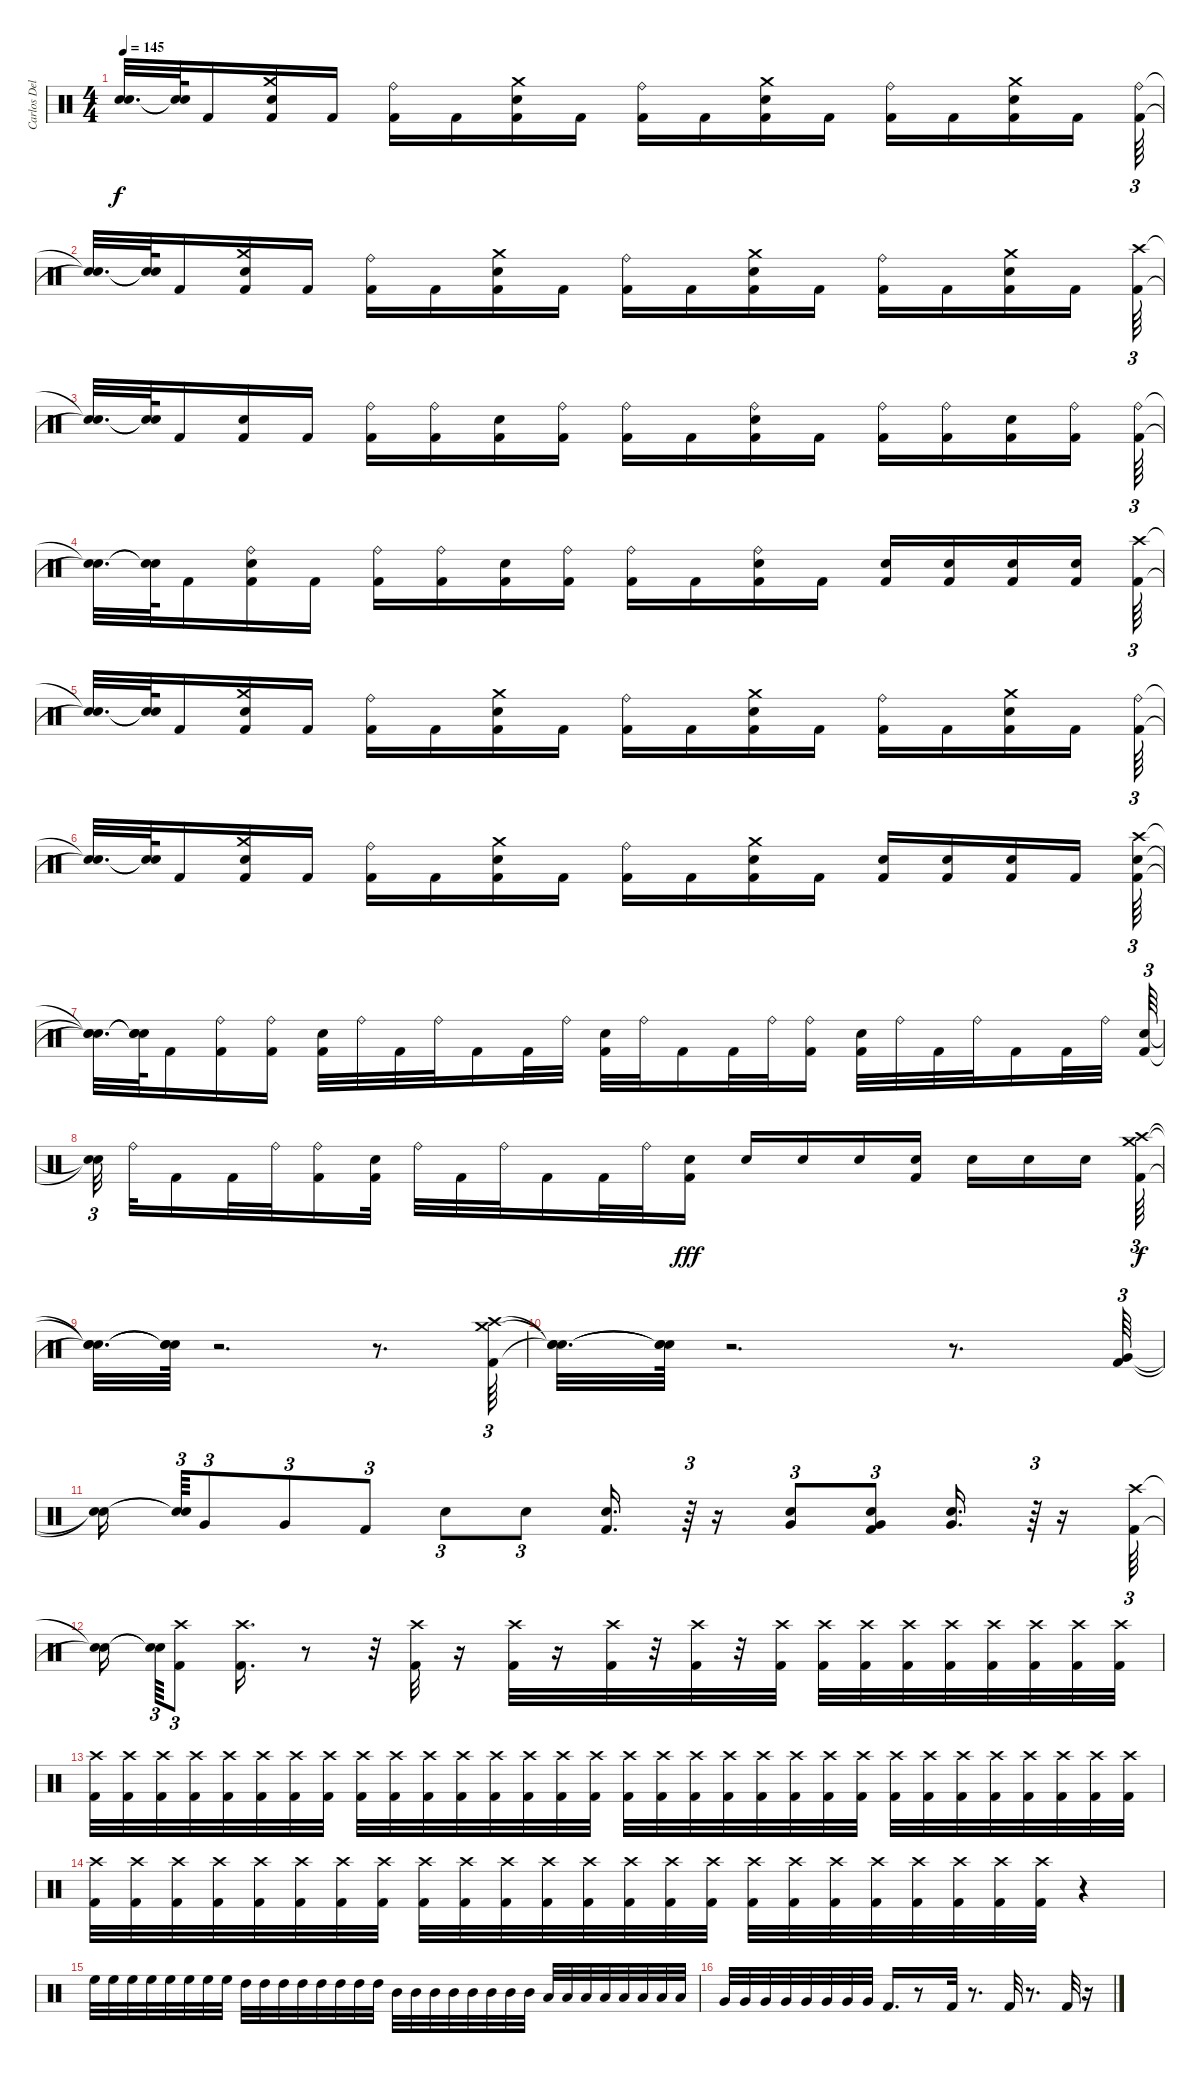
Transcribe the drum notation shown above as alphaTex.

\track ("Carlos Delgado" "Carlos Del") {instrument percussion}
\staff {score}
\articulation defaults
\ts (4 4)
\tempo 145
\clef neutral
\ks c
("Snare (hit)"{t} "Snare (hit)"{t}).32{d dy f} ("Snare (hit)"{t} "Snare (hit)"{t}).64 "Kick (hit) 2".16 ("Kick (hit) 2" "Crash medium (hit)" "Electric Snare (hit)").16 "Kick (hit) 2".16 ("Kick (hit) 2" "Ride (bell)").16 "Kick (hit) 2".16 ("Kick (hit) 2" "Crash medium (hit)" "Electric Snare (hit)").16 "Kick (hit) 2".16 ("Ride (bell)" "Kick (hit) 2").16 "Kick (hit) 2".16 ("Kick (hit) 2" "Crash medium (hit)" "Electric Snare (hit)").16 "Kick (hit) 2".16 ("Kick (hit) 2" "Ride (bell)").16 "Kick (hit) 2".16 ("Kick (hit) 2" "Crash medium (hit)" "Electric Snare (hit)").16 "Kick (hit) 2".16 ("Kick (hit) 2" "Ride (bell)").64{tu (3 2)} |
("Snare (hit)"{t} "Snare (hit)"{t}).32{d} ("Snare (hit)"{t} "Snare (hit)"{t}).64 "Kick (hit) 2".16 ("Kick (hit) 2" "Electric Snare (hit)" "Crash medium (hit)").16 "Kick (hit) 2".16 ("Kick (hit) 2" "Ride (bell)").16 "Kick (hit) 2".16 ("Kick (hit) 2" "Electric Snare (hit)" "Crash medium (hit)").16 "Kick (hit) 2".16 ("Kick (hit) 2" "Ride (bell)").16 "Kick (hit) 2".16 ("Kick (hit) 2" "Crash medium (hit)" "Electric Snare (hit)").16 "Kick (hit) 2".16 ("Ride (bell)" "Kick (hit) 2").16 "Kick (hit) 2".16 ("Kick (hit) 2" "Crash medium (hit)" "Electric Snare (hit)").16 "Kick (hit) 2".16 ("Kick (hit) 2" "Crash high (hit)").64{tu (3 2)} |
("Snare (hit)"{t} "Snare (hit)"{t}).32{d} ("Snare (hit)"{t} "Snare (hit)"{t}).64 "Kick (hit) 2".16 ("Kick (hit) 2" "Electric Snare (hit)").16 "Kick (hit) 2".16 ("Kick (hit) 2" "Ride (bell)").16 ("Ride (bell)" "Kick (hit) 2").16 ("Kick (hit) 2" "Electric Snare (hit)").16 ("Kick (hit) 2" "Ride (bell)").16 ("Ride (bell)" "Kick (hit) 2").16 "Kick (hit) 2".16 ("Ride (bell)" "Kick (hit) 2" "Electric Snare (hit)").16 "Kick (hit) 2".16 ("Kick (hit) 2" "Ride (bell)").16 ("Ride (bell)" "Kick (hit) 2").16 ("Kick (hit) 2" "Electric Snare (hit)").16 ("Ride (bell)" "Kick (hit) 2").16 ("Ride (bell)" "Kick (hit) 2").64{tu (3 2)} |
("Snare (hit)"{t} "Snare (hit)"{t}).32{d} ("Snare (hit)"{t} "Snare (hit)"{t}).64 "Kick (hit) 2".16 ("Kick (hit) 2" "Ride (bell)" "Electric Snare (hit)").16 "Kick (hit) 2".16 ("Kick (hit) 2" "Ride (bell)").16 ("Ride (bell)" "Kick (hit) 2").16 ("Kick (hit) 2" "Electric Snare (hit)").16 ("Kick (hit) 2" "Ride (bell)").16 ("Ride (bell)" "Kick (hit) 2").16 "Kick (hit) 2".16 ("Ride (bell)" "Kick (hit) 2" "Electric Snare (hit)").16 "Kick (hit) 2".16 ("Electric Snare (hit)" "Kick (hit) 2").16 ("Electric Snare (hit)" "Kick (hit) 2").16 ("Kick (hit) 2" "Electric Snare (hit)").16 ("Electric Snare (hit)" "Kick (hit) 2").16 ("Kick (hit) 2" "Crash high (hit)").64{tu (3 2)} |
("Snare (hit)"{t} "Snare (hit)"{t}).32{d} ("Snare (hit)"{t} "Snare (hit)"{t}).64 "Kick (hit) 2".16 ("Kick (hit) 2" "Crash medium (hit)" "Electric Snare (hit)").16 "Kick (hit) 2".16 ("Kick (hit) 2" "Ride (bell)").16 "Kick (hit) 2".16 ("Kick (hit) 2" "Crash medium (hit)" "Electric Snare (hit)").16 "Kick (hit) 2".16 ("Ride (bell)" "Kick (hit) 2").16 "Kick (hit) 2".16 ("Kick (hit) 2" "Crash medium (hit)" "Electric Snare (hit)").16 "Kick (hit) 2".16 ("Kick (hit) 2" "Ride (bell)").16 "Kick (hit) 2".16 ("Kick (hit) 2" "Crash medium (hit)" "Electric Snare (hit)").16 "Kick (hit) 2".16 ("Kick (hit) 2" "Ride (bell)").64{tu (3 2)} |
("Snare (hit)"{t} "Snare (hit)"{t}).32{d} ("Snare (hit)"{t} "Snare (hit)"{t}).64 "Kick (hit) 2".16 ("Kick (hit) 2" "Electric Snare (hit)" "Crash medium (hit)").16 "Kick (hit) 2".16 ("Kick (hit) 2" "Ride (bell)").16 "Kick (hit) 2".16 ("Kick (hit) 2" "Electric Snare (hit)" "Crash medium (hit)").16 "Kick (hit) 2".16 ("Kick (hit) 2" "Ride (bell)").16 "Kick (hit) 2".16 ("Kick (hit) 2" "Crash medium (hit)" "Electric Snare (hit)").16 "Kick (hit) 2".16 ("Kick (hit) 2" "Electric Snare (hit)").16 ("Kick (hit) 2" "Electric Snare (hit)").16 ("Kick (hit) 2" "Electric Snare (hit)").16 "Kick (hit) 2".16 ("Electric Snare (hit)" "Kick (hit) 2" "Crash high (hit)").64{tu (3 2)} |
("Snare (hit)"{t} "Snare (hit)"{t} "Snare (hit)"{t}).32{d} ("Snare (hit)"{t} "Snare (hit)"{t} "Snare (hit)"{t}).64 "Kick (hit) 2".16 ("Kick (hit) 2" "Ride (bell)").16 ("Ride (bell)" "Kick (hit) 2").16 ("Kick (hit) 2" "Electric Snare (hit)").32 "Ride (bell)".32 "Kick (hit) 2".32 "Ride (bell)".32 "Kick (hit) 2".16 "Kick (hit) 2".32 "Ride (bell)".32 ("Electric Snare (hit)" "Kick (hit) 2").32 "Ride (bell)".32 "Kick (hit) 2".16 "Kick (hit) 2".32 "Ride (bell)".32 ("Ride (bell)" "Kick (hit) 2").16 ("Electric Snare (hit)" "Kick (hit) 2").32 "Ride (bell)".32 "Kick (hit) 2".32 "Ride (bell)".32 "Kick (hit) 2".16 "Kick (hit) 2".32 "Ride (bell)".32 ("Electric Snare (hit)" "Kick (hit) 2").64{tu (3 2)} |
("Snare (hit)"{t} "Snare (hit)"{t}).32{tu (3 2) beam splitsecondary} "Ride (bell)".32 "Kick (hit) 2".16 "Kick (hit) 2".32 "Ride (bell)".32 ("Ride (bell)" "Kick (hit) 2").16 ("Electric Snare (hit)" "Kick (hit) 2").32 "Ride (bell)".32 "Kick (hit) 2".32 "Ride (bell)".32 "Kick (hit) 2".16 "Kick (hit) 2".32 "Ride (bell)".32 ("Electric Snare (hit)" "Kick (hit) 2").16{dy fff} "Electric Snare (hit)".16 "Electric Snare (hit)".16 "Electric Snare (hit)".16 ("Kick (hit) 2" "Electric Snare (hit)").16 "Electric Snare (hit)".16 "Electric Snare (hit)".16 "Electric Snare (hit)".16{beam splitsecondary} ("Crash medium (hit)" "Crash high (hit)" "Kick (hit) 2").64{tu (3 2) dy f} |
("Snare (hit)"{t} "Snare (hit)"{t} "Snare (hit)"{t}).32{d} ("Snare (hit)"{t} "Snare (hit)"{t} "Snare (hit)"{t}).64 r.2{d} r.8{d} ("Crash high (hit)" "Crash medium (hit)" "Kick (hit) 2").64{tu (3 2)} |
("Snare (hit)"{t} "Snare (hit)"{t} "Snare (hit)"{t}).32{d} ("Snare (hit)"{t} "Snare (hit)"{t} "Snare (hit)"{t}).64 r.2{d} r.8{d} ("Kick (hit) 2" "Very Low Tom (hit)").64{tu (3 2)} |
("Snare (hit)"{t} "Snare (hit)"{t}).16{beam splitsecondary} ("Snare (hit)"{t} "Snare (hit)"{t}).64{tu (3 2)} "Very Low Tom (hit)".8{tu (3 2)} "Very Low Tom (hit)".8{tu (3 2)} "Kick (hit) 2".8{tu (3 2)} "Electric Snare (hit)".8{tu (3 2)} "Electric Snare (hit)".8{tu (3 2)} ("Kick (hit) 2" "Electric Snare (hit)").16{d} r.64{tu (3 2)} r.16 ("Very Low Tom (hit)" "Electric Snare (hit)").8{tu (3 2)} ("Kick (hit) 2" "Very Low Tom (hit)" "Electric Snare (hit)").8{tu (3 2)} ("Electric Snare (hit)" "Very Low Tom (hit)").16{d} r.64{tu (3 2)} r.16 ("Kick (hit) 2" "Crash high (hit)").64{tu (3 2)} |
("Snare (hit)"{t} "Snare (hit)"{t}).16{beam splitsecondary} ("Snare (hit)"{t} "Snare (hit)"{t}).64{tu (3 2)} ("Kick (hit) 2" "Crash high (hit)").8{tu (3 2)} ("Kick (hit) 2" "Crash high (hit)").16{d} r.8 r.32 ("Crash high (hit)" "Kick (hit) 2").32 r.16 ("Crash high (hit)" "Kick (hit) 2").32 r.16 ("Crash high (hit)" "Kick (hit) 2").32 r.32 ("Crash high (hit)" "Kick (hit) 2").32 r.32 ("Crash high (hit)" "Kick (hit) 2").32 ("Crash high (hit)" "Kick (hit) 2").32 ("Crash high (hit)" "Kick (hit) 2").32 ("Crash high (hit)" "Kick (hit) 2").32 ("Crash high (hit)" "Kick (hit) 2").32 ("Crash high (hit)" "Kick (hit) 2").32 ("Crash high (hit)" "Kick (hit) 2").32 ("Crash high (hit)" "Kick (hit) 2").32 ("Crash high (hit)" "Kick (hit) 2").32 |
("Crash high (hit)" "Kick (hit) 2").32 ("Kick (hit) 2" "Crash high (hit)").32 ("Crash high (hit)" "Kick (hit) 2").32 ("Crash high (hit)" "Kick (hit) 2").32 ("Crash high (hit)" "Kick (hit) 2").32 ("Crash high (hit)" "Kick (hit) 2").32 ("Crash high (hit)" "Kick (hit) 2").32 ("Crash high (hit)" "Kick (hit) 2").32 ("Crash high (hit)" "Kick (hit) 2").32 ("Crash high (hit)" "Kick (hit) 2").32 ("Crash high (hit)" "Kick (hit) 2").32 ("Crash high (hit)" "Kick (hit) 2").32 ("Crash high (hit)" "Kick (hit) 2").32 ("Crash high (hit)" "Kick (hit) 2").32 ("Crash high (hit)" "Kick (hit) 2").32 ("Crash high (hit)" "Kick (hit) 2").32 ("Crash high (hit)" "Kick (hit) 2").32 ("Crash high (hit)" "Kick (hit) 2").32 ("Kick (hit) 2" "Crash high (hit)").32 ("Kick (hit) 2" "Crash high (hit)").32 ("Crash high (hit)" "Kick (hit) 2").32 ("Crash high (hit)" "Kick (hit) 2").32 ("Crash high (hit)" "Kick (hit) 2").32 ("Crash high (hit)" "Kick (hit) 2").32 ("Crash high (hit)" "Kick (hit) 2").32 ("Crash high (hit)" "Kick (hit) 2").32 ("Crash high (hit)" "Kick (hit) 2").32 ("Crash high (hit)" "Kick (hit) 2").32 ("Crash high (hit)" "Kick (hit) 2").32 ("Crash high (hit)" "Kick (hit) 2").32 ("Crash high (hit)" "Kick (hit) 2").32 ("Crash high (hit)" "Kick (hit) 2").32 |
("Crash high (hit)" "Kick (hit) 2").32 ("Crash high (hit)" "Kick (hit) 2").32 ("Crash high (hit)" "Kick (hit) 2").32 ("Crash high (hit)" "Kick (hit) 2").32 ("Kick (hit) 2" "Crash high (hit)").32 ("Crash high (hit)" "Kick (hit) 2").32 ("Crash high (hit)" "Kick (hit) 2").32 ("Crash high (hit)" "Kick (hit) 2").32 ("Crash high (hit)" "Kick (hit) 2").32 ("Crash high (hit)" "Kick (hit) 2").32 ("Crash high (hit)" "Kick (hit) 2").32 ("Crash high (hit)" "Kick (hit) 2").32 ("Crash high (hit)" "Kick (hit) 2").32 ("Crash high (hit)" "Kick (hit) 2").32 ("Crash high (hit)" "Kick (hit) 2").32 ("Crash high (hit)" "Kick (hit) 2").32 ("Crash high (hit)" "Kick (hit) 2").32 ("Crash high (hit)" "Kick (hit) 2").32 ("Crash high (hit)" "Kick (hit) 2").32 ("Crash high (hit)" "Kick (hit) 2").32 ("Crash high (hit)" "Kick (hit) 2").32 ("Kick (hit) 2" "Crash high (hit)").32 ("Crash high (hit)" "Kick (hit) 2").32 ("Kick (hit) 2" "Crash high (hit)").32 r.4 |
"High Floor Tom (hit)".32 "High Floor Tom (hit)".32 "High Floor Tom (hit)".32 "High Floor Tom (hit)".32 "High Floor Tom (hit)".32 "High Floor Tom (hit)".32 "High Floor Tom (hit)".32 "High Floor Tom (hit)".32 "High Tom (hit)".32 "High Tom (hit)".32 "High Tom (hit)".32 "High Tom (hit)".32 "High Tom (hit)".32 "High Tom (hit)".32 "High Tom (hit)".32 "High Tom (hit)".32 "Mid Tom (hit)".32 "Mid Tom (hit)".32 "Mid Tom (hit)".32 "Mid Tom (hit)".32 "Mid Tom (hit)".32 "Mid Tom (hit)".32 "Mid Tom (hit)".32 "Mid Tom (hit)".32 "Low Tom (hit)".32 "Low Tom (hit)".32 "Low Tom (hit)".32 "Low Tom (hit)".32 "Low Tom (hit)".32 "Low Tom (hit)".32 "Low Tom (hit)".32 "Low Tom (hit)".32 |
"Very Low Tom (hit)".32 "Very Low Tom (hit)".32 "Very Low Tom (hit)".32 "Very Low Tom (hit)".32 "Very Low Tom (hit)".32 "Very Low Tom (hit)".32 "Very Low Tom (hit)".32 "Very Low Tom (hit)".32 "Kick (hit) 2".16{d} r.8 "Kick (hit) 2".32 r.8{d} "Kick (hit) 2".32 r.8{d} "Kick (hit) 2".32 r.16
